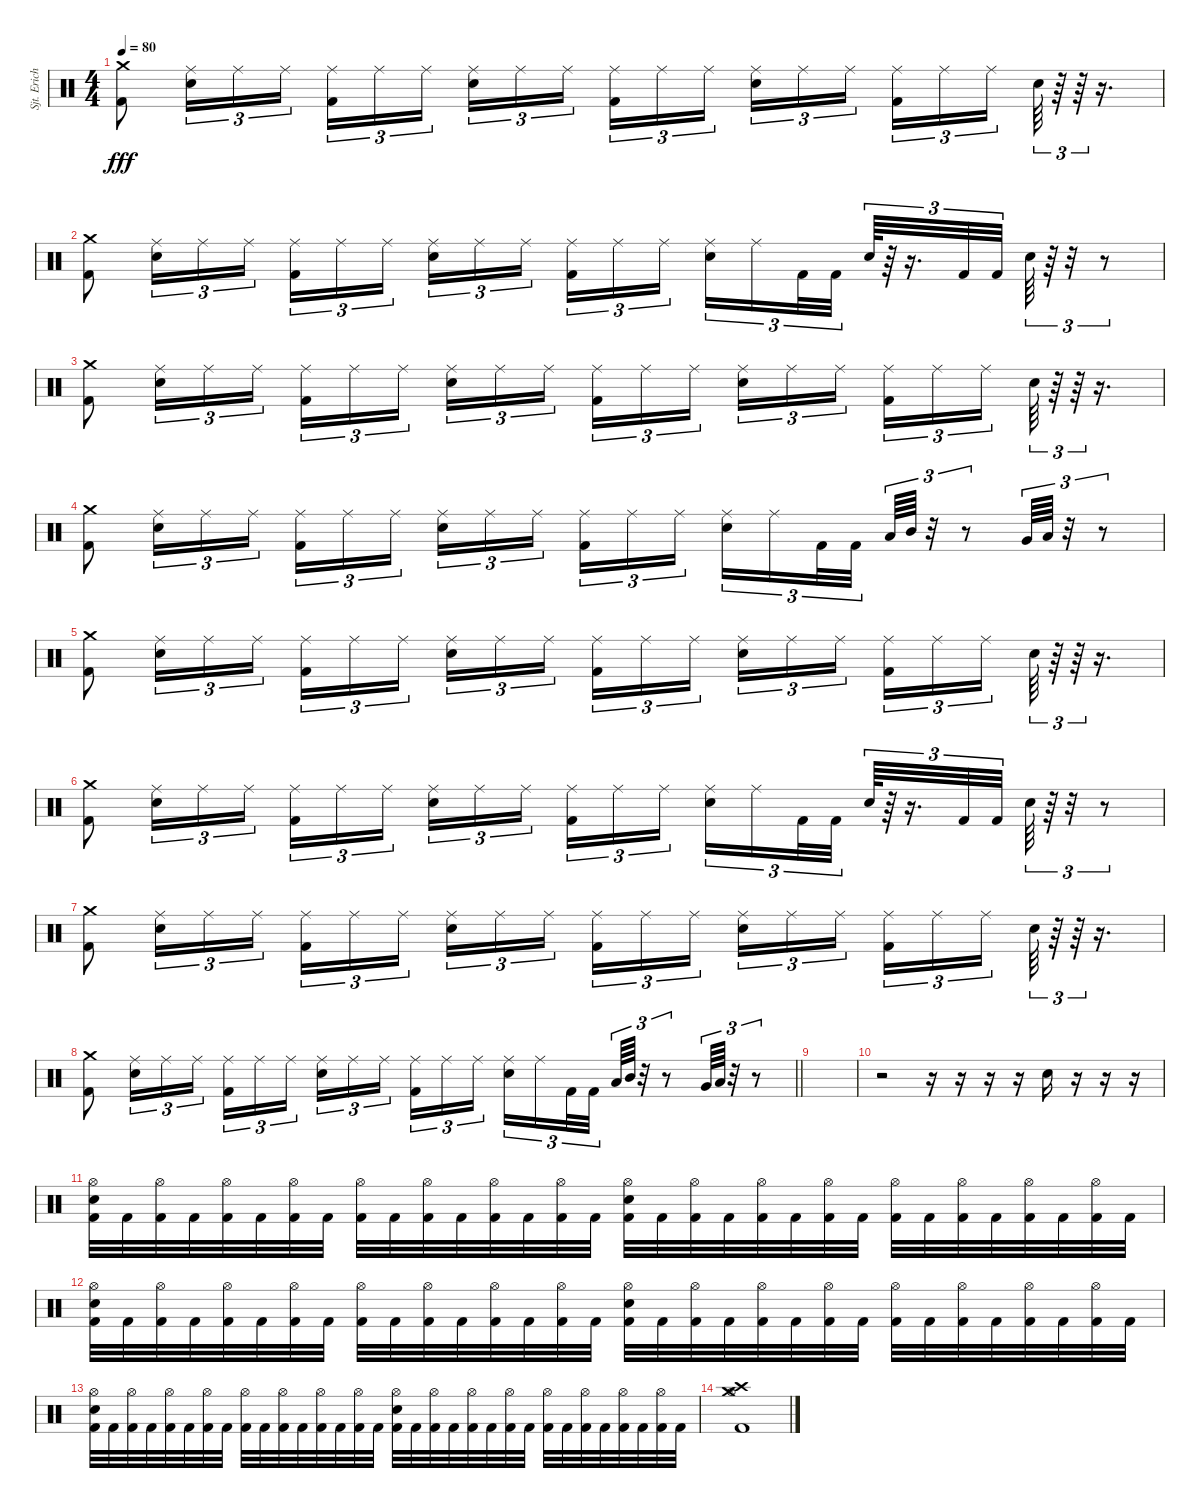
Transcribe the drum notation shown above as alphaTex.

\track ("Sjt. Erichsen" "Sjt. Erich") {instrument percussion}
\staff {score}
\articulation defaults
\ts (4 4)
\tempo 80
\clef neutral
\ks c
("Crash medium (hit)" "Kick (hit) 2").8{dy fff} ("Ride (middle)" "Electric Snare (hit)").16{tu (3 2)} "Ride (middle)".16{tu (3 2)} "Ride (middle)".16{tu (3 2)} ("Ride (middle)" "Kick (hit) 2").16{tu (3 2)} "Ride (middle)".16{tu (3 2)} "Ride (middle)".16{tu (3 2) beam splitsecondary} ("Ride (middle)" "Electric Snare (hit)").16{tu (3 2)} "Ride (middle)".16{tu (3 2)} "Ride (middle)".16{tu (3 2)} ("Ride (middle)" "Kick (hit) 2").16{tu (3 2)} "Ride (middle)".16{tu (3 2)} "Ride (middle)".16{tu (3 2) beam splitsecondary} ("Ride (middle)" "Electric Snare (hit)").16{tu (3 2)} "Ride (middle)".16{tu (3 2)} "Ride (middle)".16{tu (3 2)} ("Ride (middle)" "Kick (hit) 2").16{tu (3 2)} "Ride (middle)".16{tu (3 2)} "Ride (middle)".16{tu (3 2) beam splitsecondary} "Electric Snare (hit)".64{tu (3 2)} r.64{tu (3 2)} r.64{tu (3 2)} r.16{d} |
("Crash medium (hit)" "Kick (hit) 2").8 ("Ride (middle)" "Electric Snare (hit)").16{tu (3 2)} "Ride (middle)".16{tu (3 2)} "Ride (middle)".16{tu (3 2)} ("Ride (middle)" "Kick (hit) 2").16{tu (3 2)} "Ride (middle)".16{tu (3 2)} "Ride (middle)".16{tu (3 2) beam splitsecondary} ("Ride (middle)" "Electric Snare (hit)").16{tu (3 2)} "Ride (middle)".16{tu (3 2)} "Ride (middle)".16{tu (3 2)} ("Ride (middle)" "Kick (hit) 2").16{tu (3 2)} "Ride (middle)".16{tu (3 2)} "Ride (middle)".16{tu (3 2) beam splitsecondary} ("Ride (middle)" "Electric Snare (hit)").16{tu (3 2)} "Ride (middle)".16{tu (3 2)} "Kick (hit) 2".32{tu (3 2)} "Kick (hit) 2".32{tu (3 2)} "Electric Snare (hit)".64{tu (3 2)} r.64{tu (3 2)} r.16{d tu (3 2)} "Kick (hit) 2".32{tu (3 2)} "Kick (hit) 2".32{tu (3 2)} "Electric Snare (hit)".64{tu (3 2)} r.64{tu (3 2)} r.32{tu (3 2)} r.8{tu (3 2)} |
("Crash medium (hit)" "Kick (hit) 2").8 ("Ride (middle)" "Electric Snare (hit)").16{tu (3 2)} "Ride (middle)".16{tu (3 2)} "Ride (middle)".16{tu (3 2)} ("Ride (middle)" "Kick (hit) 2").16{tu (3 2)} "Ride (middle)".16{tu (3 2)} "Ride (middle)".16{tu (3 2) beam splitsecondary} ("Ride (middle)" "Electric Snare (hit)").16{tu (3 2)} "Ride (middle)".16{tu (3 2)} "Ride (middle)".16{tu (3 2)} ("Ride (middle)" "Kick (hit) 2").16{tu (3 2)} "Ride (middle)".16{tu (3 2)} "Ride (middle)".16{tu (3 2) beam splitsecondary} ("Ride (middle)" "Electric Snare (hit)").16{tu (3 2)} "Ride (middle)".16{tu (3 2)} "Ride (middle)".16{tu (3 2)} ("Ride (middle)" "Kick (hit) 2").16{tu (3 2)} "Ride (middle)".16{tu (3 2)} "Ride (middle)".16{tu (3 2) beam splitsecondary} "Electric Snare (hit)".64{tu (3 2)} r.64{tu (3 2)} r.64{tu (3 2)} r.16{d} |
("Crash medium (hit)" "Kick (hit) 2").8 ("Ride (middle)" "Electric Snare (hit)").16{tu (3 2)} "Ride (middle)".16{tu (3 2)} "Ride (middle)".16{tu (3 2)} ("Ride (middle)" "Kick (hit) 2").16{tu (3 2)} "Ride (middle)".16{tu (3 2)} "Ride (middle)".16{tu (3 2) beam splitsecondary} ("Ride (middle)" "Electric Snare (hit)").16{tu (3 2)} "Ride (middle)".16{tu (3 2)} "Ride (middle)".16{tu (3 2)} ("Ride (middle)" "Kick (hit) 2").16{tu (3 2)} "Ride (middle)".16{tu (3 2)} "Ride (middle)".16{tu (3 2) beam splitsecondary} ("Ride (middle)" "Electric Snare (hit)").16{tu (3 2)} "Ride (middle)".16{tu (3 2)} "Kick (hit) 2".32{tu (3 2)} "Kick (hit) 2".32{tu (3 2)} "Low Tom (hit)".64{tu (3 2)} "Mid Tom (hit)".64{tu (3 2)} r.32{tu (3 2)} r.8{tu (3 2)} "Very Low Tom (hit)".64{tu (3 2)} "Low Tom (hit)".64{tu (3 2)} r.32{tu (3 2)} r.8{tu (3 2)} |
("Crash medium (hit)" "Kick (hit) 2").8 ("Ride (middle)" "Electric Snare (hit)").16{tu (3 2)} "Ride (middle)".16{tu (3 2)} "Ride (middle)".16{tu (3 2)} ("Ride (middle)" "Kick (hit) 2").16{tu (3 2)} "Ride (middle)".16{tu (3 2)} "Ride (middle)".16{tu (3 2) beam splitsecondary} ("Ride (middle)" "Electric Snare (hit)").16{tu (3 2)} "Ride (middle)".16{tu (3 2)} "Ride (middle)".16{tu (3 2)} ("Ride (middle)" "Kick (hit) 2").16{tu (3 2)} "Ride (middle)".16{tu (3 2)} "Ride (middle)".16{tu (3 2) beam splitsecondary} ("Ride (middle)" "Electric Snare (hit)").16{tu (3 2)} "Ride (middle)".16{tu (3 2)} "Ride (middle)".16{tu (3 2)} ("Ride (middle)" "Kick (hit) 2").16{tu (3 2)} "Ride (middle)".16{tu (3 2)} "Ride (middle)".16{tu (3 2) beam splitsecondary} "Electric Snare (hit)".64{tu (3 2)} r.64{tu (3 2)} r.64{tu (3 2)} r.16{d} |
("Crash medium (hit)" "Kick (hit) 2").8 ("Ride (middle)" "Electric Snare (hit)").16{tu (3 2)} "Ride (middle)".16{tu (3 2)} "Ride (middle)".16{tu (3 2)} ("Ride (middle)" "Kick (hit) 2").16{tu (3 2)} "Ride (middle)".16{tu (3 2)} "Ride (middle)".16{tu (3 2) beam splitsecondary} ("Ride (middle)" "Electric Snare (hit)").16{tu (3 2)} "Ride (middle)".16{tu (3 2)} "Ride (middle)".16{tu (3 2)} ("Ride (middle)" "Kick (hit) 2").16{tu (3 2)} "Ride (middle)".16{tu (3 2)} "Ride (middle)".16{tu (3 2) beam splitsecondary} ("Ride (middle)" "Electric Snare (hit)").16{tu (3 2)} "Ride (middle)".16{tu (3 2)} "Kick (hit) 2".32{tu (3 2)} "Kick (hit) 2".32{tu (3 2)} "Electric Snare (hit)".64{tu (3 2)} r.64{tu (3 2)} r.16{d tu (3 2)} "Kick (hit) 2".32{tu (3 2)} "Kick (hit) 2".32{tu (3 2)} "Electric Snare (hit)".64{tu (3 2)} r.64{tu (3 2)} r.32{tu (3 2)} r.8{tu (3 2)} |
("Crash medium (hit)" "Kick (hit) 2").8 ("Ride (middle)" "Electric Snare (hit)").16{tu (3 2)} "Ride (middle)".16{tu (3 2)} "Ride (middle)".16{tu (3 2)} ("Ride (middle)" "Kick (hit) 2").16{tu (3 2)} "Ride (middle)".16{tu (3 2)} "Ride (middle)".16{tu (3 2) beam splitsecondary} ("Ride (middle)" "Electric Snare (hit)").16{tu (3 2)} "Ride (middle)".16{tu (3 2)} "Ride (middle)".16{tu (3 2)} ("Ride (middle)" "Kick (hit) 2").16{tu (3 2)} "Ride (middle)".16{tu (3 2)} "Ride (middle)".16{tu (3 2) beam splitsecondary} ("Ride (middle)" "Electric Snare (hit)").16{tu (3 2)} "Ride (middle)".16{tu (3 2)} "Ride (middle)".16{tu (3 2)} ("Ride (middle)" "Kick (hit) 2").16{tu (3 2)} "Ride (middle)".16{tu (3 2)} "Ride (middle)".16{tu (3 2) beam splitsecondary} "Electric Snare (hit)".64{tu (3 2)} r.64{tu (3 2)} r.64{tu (3 2)} r.16{d} |
\barLineRight lightlight
("Crash medium (hit)" "Kick (hit) 2").8 ("Ride (middle)" "Electric Snare (hit)").16{tu (3 2)} "Ride (middle)".16{tu (3 2)} "Ride (middle)".16{tu (3 2)} ("Ride (middle)" "Kick (hit) 2").16{tu (3 2)} "Ride (middle)".16{tu (3 2)} "Ride (middle)".16{tu (3 2) beam splitsecondary} ("Ride (middle)" "Electric Snare (hit)").16{tu (3 2)} "Ride (middle)".16{tu (3 2)} "Ride (middle)".16{tu (3 2)} ("Ride (middle)" "Kick (hit) 2").16{tu (3 2)} "Ride (middle)".16{tu (3 2)} "Ride (middle)".16{tu (3 2) beam splitsecondary} ("Ride (middle)" "Electric Snare (hit)").16{tu (3 2)} "Ride (middle)".16{tu (3 2)} "Kick (hit) 2".32{tu (3 2)} "Kick (hit) 2".32{tu (3 2)} "Low Tom (hit)".64{tu (3 2)} "Mid Tom (hit)".64{tu (3 2)} r.32{tu (3 2)} r.8{tu (3 2)} "Very Low Tom (hit)".64{tu (3 2)} "Low Tom (hit)".64{tu (3 2)} r.32{tu (3 2)} r.8{tu (3 2)} |
|
r.2 r.16 r.16 r.16 r.16 "Electric Snare (hit)".16 r.16 r.16 r.16 |
("Hi-Hat (open)" "Electric Snare (hit)" "Kick (hit) 2").32 "Kick (hit) 2".32 ("Hi-Hat (open)" "Kick (hit) 2").32 "Kick (hit) 2".32 ("Hi-Hat (open)" "Kick (hit) 2").32 "Kick (hit) 2".32 ("Hi-Hat (open)" "Kick (hit) 2").32 "Kick (hit) 2".32 ("Hi-Hat (open)" "Kick (hit) 2").32 "Kick (hit) 2".32 ("Hi-Hat (open)" "Kick (hit) 2").32 "Kick (hit) 2".32 ("Hi-Hat (open)" "Kick (hit) 2").32 "Kick (hit) 2".32 ("Hi-Hat (open)" "Kick (hit) 2").32 "Kick (hit) 2".32 ("Hi-Hat (open)" "Electric Snare (hit)" "Kick (hit) 2").32 "Kick (hit) 2".32 ("Hi-Hat (open)" "Kick (hit) 2").32 "Kick (hit) 2".32 ("Hi-Hat (open)" "Kick (hit) 2").32 "Kick (hit) 2".32 ("Hi-Hat (open)" "Kick (hit) 2").32 "Kick (hit) 2".32 ("Hi-Hat (open)" "Kick (hit) 2").32 "Kick (hit) 2".32 ("Hi-Hat (open)" "Kick (hit) 2").32 "Kick (hit) 2".32 ("Hi-Hat (open)" "Kick (hit) 2").32 "Kick (hit) 2".32 ("Hi-Hat (open)" "Kick (hit) 2").32 "Kick (hit) 2".32 |
("Hi-Hat (open)" "Electric Snare (hit)" "Kick (hit) 2").32 "Kick (hit) 2".32 ("Hi-Hat (open)" "Kick (hit) 2").32 "Kick (hit) 2".32 ("Hi-Hat (open)" "Kick (hit) 2").32 "Kick (hit) 2".32 ("Hi-Hat (open)" "Kick (hit) 2").32 "Kick (hit) 2".32 ("Hi-Hat (open)" "Kick (hit) 2").32 "Kick (hit) 2".32 ("Hi-Hat (open)" "Kick (hit) 2").32 "Kick (hit) 2".32 ("Hi-Hat (open)" "Kick (hit) 2").32 "Kick (hit) 2".32 ("Hi-Hat (open)" "Kick (hit) 2").32 "Kick (hit) 2".32 ("Hi-Hat (open)" "Electric Snare (hit)" "Kick (hit) 2").32 "Kick (hit) 2".32 ("Hi-Hat (open)" "Kick (hit) 2").32 "Kick (hit) 2".32 ("Hi-Hat (open)" "Kick (hit) 2").32 "Kick (hit) 2".32 ("Hi-Hat (open)" "Kick (hit) 2").32 "Kick (hit) 2".32 ("Hi-Hat (open)" "Kick (hit) 2").32 "Kick (hit) 2".32 ("Hi-Hat (open)" "Kick (hit) 2").32 "Kick (hit) 2".32 ("Hi-Hat (open)" "Kick (hit) 2").32 "Kick (hit) 2".32 ("Hi-Hat (open)" "Kick (hit) 2").32 "Kick (hit) 2".32 |
("Hi-Hat (open)" "Electric Snare (hit)" "Kick (hit) 2").32 "Kick (hit) 2".32 ("Hi-Hat (open)" "Kick (hit) 2").32 "Kick (hit) 2".32 ("Hi-Hat (open)" "Kick (hit) 2").32 "Kick (hit) 2".32 ("Hi-Hat (open)" "Kick (hit) 2").32 "Kick (hit) 2".32 ("Hi-Hat (open)" "Kick (hit) 2").32 "Kick (hit) 2".32 ("Hi-Hat (open)" "Kick (hit) 2").32 "Kick (hit) 2".32 ("Hi-Hat (open)" "Kick (hit) 2").32 "Kick (hit) 2".32 ("Hi-Hat (open)" "Kick (hit) 2").32 "Kick (hit) 2".32 ("Hi-Hat (open)" "Electric Snare (hit)" "Kick (hit) 2").32 "Kick (hit) 2".32 ("Hi-Hat (open)" "Kick (hit) 2").32 "Kick (hit) 2".32 ("Hi-Hat (open)" "Kick (hit) 2").32 "Kick (hit) 2".32 ("Hi-Hat (open)" "Kick (hit) 2").32 "Kick (hit) 2".32 ("Hi-Hat (open)" "Kick (hit) 2").32 "Kick (hit) 2".32 ("Hi-Hat (open)" "Kick (hit) 2").32 "Kick (hit) 2".32 ("Hi-Hat (open)" "Kick (hit) 2").32 "Kick (hit) 2".32 ("Hi-Hat (open)" "Kick (hit) 2").32 "Kick (hit) 2".32 |
("Crash medium (hit)" "Crash high (hit)" "Hi-Hat (open)" "Kick (hit) 2").1
